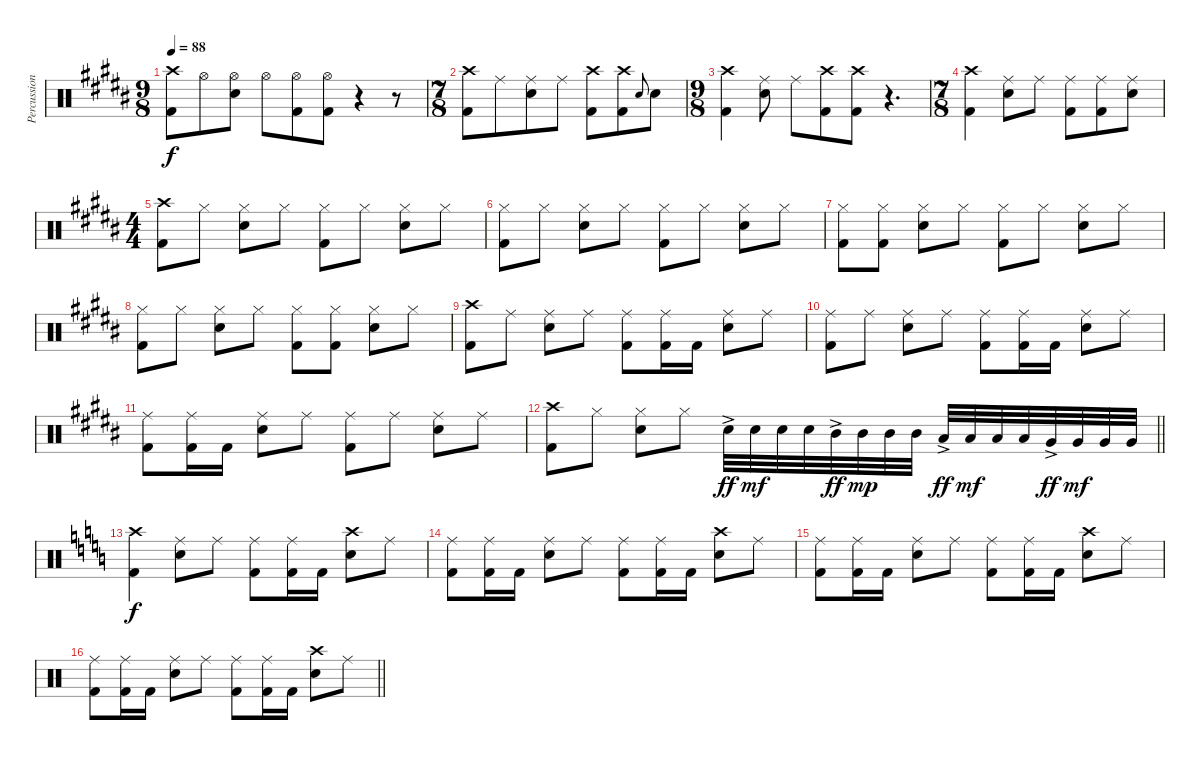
\track ("Percussion" "Percussion") {instrument percussion}
\staff {score}
\articulation defaults
\ts (9 8)
\tempo 88
\clef neutral
\ks b
("Crash high (hit)" "Kick (hit) 2").8{dy f} "Hi-Hat (open)".8 ("Hi-Hat (open)" "Snare (hit) 2").8 "Hi-Hat (open)".8 ("Hi-Hat (open)" "Kick (hit) 2").8 ("Hi-Hat (open)" "Kick (hit) 2").8 r.4 r.8 |
\ts (7 8)
("Crash high (hit)" "Kick (hit) 2").8 "Ride (middle)".8 ("Ride (middle)" "Snare (hit) 2").8 "Ride (middle)".8 ("Crash high (hit)" "Kick (hit) 2").8 ("Crash high (hit)" "Kick (hit) 2").8 "Snare (hit) 2".8{gr onbeat} "Snare (hit) 2".8 |
\ts (9 8)
("Crash high (hit)" "Kick (hit) 2").4 ("Ride (middle)" "Snare (hit) 2").8 "Ride (middle)".8 ("Crash high (hit)" "Kick (hit) 2").8 ("Crash high (hit)" "Kick (hit) 2").8 r.4{d} |
\ts (7 8)
("Crash high (hit)" "Kick (hit) 2").4 ("Ride (middle)" "Snare (hit) 2").8 "Ride (middle)".8 ("Ride (middle)" "Kick (hit) 2").8 ("Ride (middle)" "Kick (hit) 2").8 ("Ride (middle)" "Snare (hit) 2").8 |
\ts (4 4)
("Crash high (hit)" "Kick (hit) 2").8 "Hi-Hat (closed)".8 ("Hi-Hat (closed)" "Snare (hit) 2").8 "Hi-Hat (closed)".8 ("Hi-Hat (closed)" "Kick (hit) 2").8 "Hi-Hat (closed)".8 ("Hi-Hat (closed)" "Snare (hit) 2").8 "Hi-Hat (closed)".8 |
("Hi-Hat (closed)" "Kick (hit) 2").8 "Hi-Hat (closed)".8 ("Hi-Hat (closed)" "Snare (hit) 2").8 "Hi-Hat (closed)".8 ("Hi-Hat (closed)" "Kick (hit) 2").8 "Hi-Hat (closed)".8 ("Hi-Hat (closed)" "Snare (hit) 2").8 "Hi-Hat (closed)".8 |
("Hi-Hat (closed)" "Kick (hit) 2").8 ("Hi-Hat (closed)" "Kick (hit) 2").8 ("Hi-Hat (closed)" "Snare (hit) 2").8 "Hi-Hat (closed)".8 ("Hi-Hat (closed)" "Kick (hit) 2").8 "Hi-Hat (closed)".8 ("Hi-Hat (closed)" "Snare (hit) 2").8 "Hi-Hat (closed)".8 |
("Hi-Hat (closed)" "Kick (hit) 2").8 "Hi-Hat (closed)".8 ("Hi-Hat (closed)" "Snare (hit) 2").8 "Hi-Hat (closed)".8 ("Hi-Hat (closed)" "Kick (hit) 2").8 ("Hi-Hat (closed)" "Kick (hit) 2").8 ("Hi-Hat (closed)" "Snare (hit) 2").8 "Hi-Hat (closed)".8 |
("Crash high (hit)" "Kick (hit) 2").8 "Ride (middle)".8 ("Ride (middle)" "Snare (hit) 2").8 "Ride (middle)".8 ("Ride (middle)" "Kick (hit) 2").8 ("Ride (middle)" "Kick (hit) 2").16 "Kick (hit) 2".16 ("Ride (middle)" "Snare (hit) 2").8 "Ride (middle)".8 |
("Ride (middle)" "Kick (hit) 2").8 "Ride (middle)".8 ("Ride (middle)" "Snare (hit) 2").8 "Ride (middle)".8 ("Ride (middle)" "Kick (hit) 2").8 ("Ride (middle)" "Kick (hit) 2").16 "Kick (hit) 2".16 ("Ride (middle)" "Snare (hit) 2").8 "Ride (middle)".8 |
("Ride (middle)" "Kick (hit) 2").8 ("Ride (middle)" "Kick (hit) 2").16 "Kick (hit) 2".16 ("Ride (middle)" "Snare (hit) 2").8 "Ride (middle)".8 ("Ride (middle)" "Kick (hit) 2").8 "Ride (middle)".8 ("Ride (middle)" "Snare (hit) 2").8 "Ride (middle)".8 |
\barLineRight lightlight
("Crash high (hit)" "Kick (hit) 2").8 "Hi-Hat (closed)".8 ("Hi-Hat (closed)" "Snare (hit) 2").8 "Hi-Hat (closed)".8 "Snare (hit) 2"{ac}.32{dy ff} "Snare (hit) 2".32{dy mf} "Snare (hit) 2".32 "Snare (hit) 2".32 "Mid Tom (hit)"{ac}.32{dy ff} "Mid Tom (hit)".32{dy mp} "Mid Tom (hit)".32 "Mid Tom (hit)".32 "Low Tom (hit)"{ac}.32{dy ff} "Low Tom (hit)".32{dy mf} "Low Tom (hit)".32 "Low Tom (hit)".32 "Very Low Tom (hit)"{ac}.32{dy ff} "Very Low Tom (hit)".32{dy mf} "Very Low Tom (hit)".32 "Very Low Tom (hit)".32 |
\ks aminor
("Crash high (hit)" "Kick (hit) 2").4{dy f} ("Ride (middle)" "Snare (hit) 2").8 "Ride (middle)".8 ("Ride (middle)" "Kick (hit) 2").8 ("Ride (middle)" "Kick (hit) 2").16 "Kick (hit) 2".16 ("Crash high (hit)" "Snare (hit) 2").8 "Ride (middle)".8 |
("Ride (middle)" "Kick (hit) 2").8 ("Ride (middle)" "Kick (hit) 2").16 "Kick (hit) 2".16 ("Ride (middle)" "Snare (hit) 2").8 "Ride (middle)".8 ("Ride (middle)" "Kick (hit) 2").8 ("Ride (middle)" "Kick (hit) 2").16 "Kick (hit) 2".16 ("Crash high (hit)" "Snare (hit) 2").8 "Ride (middle)".8 |
("Ride (middle)" "Kick (hit) 2").8 ("Ride (middle)" "Kick (hit) 2").16 "Kick (hit) 2".16 ("Ride (middle)" "Snare (hit) 2").8 "Ride (middle)".8 ("Ride (middle)" "Kick (hit) 2").8 ("Ride (middle)" "Kick (hit) 2").16 "Kick (hit) 2".16 ("Crash high (hit)" "Snare (hit) 2").8 "Ride (middle)".8 |
\barLineRight lightlight
("Ride (middle)" "Kick (hit) 2").8 ("Ride (middle)" "Kick (hit) 2").16 "Kick (hit) 2".16 ("Ride (middle)" "Snare (hit) 2").8 "Ride (middle)".8 ("Ride (middle)" "Kick (hit) 2").8 ("Ride (middle)" "Kick (hit) 2").16 "Kick (hit) 2".16 ("Crash high (hit)" "Snare (hit) 2").8 "Ride (middle)".8
